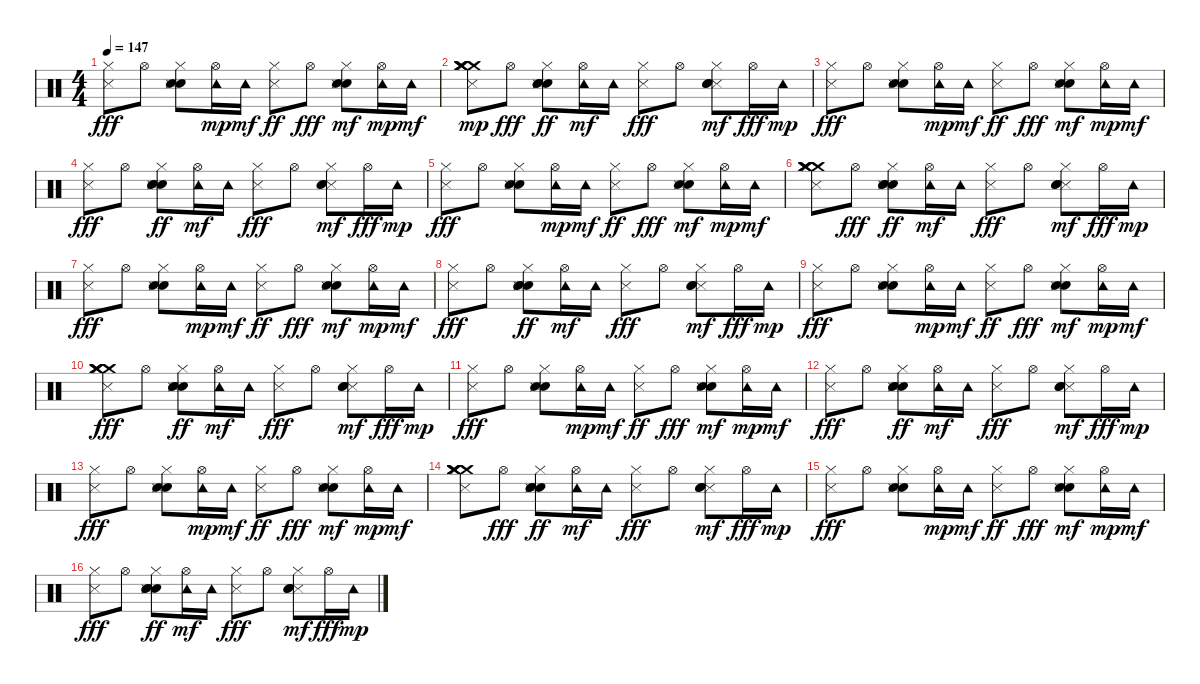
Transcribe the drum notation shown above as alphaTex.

\track "" {instrument percussion}
\staff {score}
\articulation defaults
\ts (4 4)
\tempo 147
\clef neutral
\ks c
("Metronome (hit)" "Hi-Hat (closed)").8{dy fff} "Hi-Hat (open)".8 ("Hand Clap (hit)" "Metronome (hit)" "Hi-Hat (closed)" "Snare (hit) 2").8 ("Hi-Hat (open)" "Tambourine (hit)").16{dy mp} "Tambourine (hit)".16{dy mf} ("Metronome (hit)" "Hi-Hat (closed)").8{dy ff} "Hi-Hat (open)".8{dy fff} ("Hand Clap (hit)" "Metronome (hit)" "Hi-Hat (closed)" "Snare (hit) 2").8{dy mf} ("Hi-Hat (open)" "Tambourine (hit)").16{dy mp} "Tambourine (hit)".16{dy mf} |
("Crash medium (hit)" "Crash medium (hit)" "Crash medium (hit)" "Hi-Hat (closed)" "Metronome (hit)" "Crash medium (hit)").8{dy mp} "Hi-Hat (open)".8{dy fff} ("Hand Clap (hit)" "Metronome (hit)" "Hi-Hat (closed)" "Snare (hit) 2" "Snare (hit) 2").8{dy ff} ("Hi-Hat (open)" "Tambourine (hit)").16{dy mf} "Tambourine (hit)".16 ("Hi-Hat (closed)" "Metronome (hit)").8{dy fff} "Hi-Hat (open)".8 ("Metronome (hit)" "Hand Clap (hit)" "Hi-Hat (closed)" "Snare (hit) 2").8{dy mf} "Hi-Hat (open)".16{dy fff} "Tambourine (hit)".16{dy mp} |
("Metronome (hit)" "Hi-Hat (closed)").8{dy fff} "Hi-Hat (open)".8 ("Hand Clap (hit)" "Metronome (hit)" "Hi-Hat (closed)" "Snare (hit) 2").8 ("Hi-Hat (open)" "Tambourine (hit)").16{dy mp} "Tambourine (hit)".16{dy mf} ("Metronome (hit)" "Hi-Hat (closed)").8{dy ff} "Hi-Hat (open)".8{dy fff} ("Hand Clap (hit)" "Metronome (hit)" "Hi-Hat (closed)" "Snare (hit) 2").8{dy mf} ("Hi-Hat (open)" "Tambourine (hit)").16{dy mp} "Tambourine (hit)".16{dy mf} |
("Hi-Hat (closed)" "Metronome (hit)").8{dy fff} "Hi-Hat (open)".8 ("Hand Clap (hit)" "Metronome (hit)" "Hi-Hat (closed)" "Snare (hit) 2" "Snare (hit) 2").8{dy ff} ("Hi-Hat (open)" "Tambourine (hit)").16{dy mf} "Tambourine (hit)".16 ("Hi-Hat (closed)" "Metronome (hit)").8{dy fff} "Hi-Hat (open)".8 ("Metronome (hit)" "Hand Clap (hit)" "Hi-Hat (closed)" "Snare (hit) 2").8{dy mf} "Hi-Hat (open)".16{dy fff} "Tambourine (hit)".16{dy mp} |
("Metronome (hit)" "Hi-Hat (closed)").8{dy fff} "Hi-Hat (open)".8 ("Hand Clap (hit)" "Metronome (hit)" "Hi-Hat (closed)" "Snare (hit) 2").8 ("Hi-Hat (open)" "Tambourine (hit)").16{dy mp} "Tambourine (hit)".16{dy mf} ("Metronome (hit)" "Hi-Hat (closed)").8{dy ff} "Hi-Hat (open)".8{dy fff} ("Hand Clap (hit)" "Metronome (hit)" "Hi-Hat (closed)" "Snare (hit) 2").8{dy mf} ("Hi-Hat (open)" "Tambourine (hit)").16{dy mp} "Tambourine (hit)".16{dy mf} |
("Crash medium (hit)" "Crash medium (hit)" "Hi-Hat (closed)" "Metronome (hit)" "Crash medium (hit)" "Crash medium (hit)").8 "Hi-Hat (open)".8{dy fff} ("Hand Clap (hit)" "Metronome (hit)" "Hi-Hat (closed)" "Snare (hit) 2" "Snare (hit) 2").8{dy ff} ("Hi-Hat (open)" "Tambourine (hit)").16{dy mf} "Tambourine (hit)".16 ("Hi-Hat (closed)" "Metronome (hit)").8{dy fff} "Hi-Hat (open)".8 ("Metronome (hit)" "Hand Clap (hit)" "Hi-Hat (closed)" "Snare (hit) 2").8{dy mf} "Hi-Hat (open)".16{dy fff} "Tambourine (hit)".16{dy mp} |
("Metronome (hit)" "Hi-Hat (closed)").8{dy fff} "Hi-Hat (open)".8 ("Hand Clap (hit)" "Metronome (hit)" "Hi-Hat (closed)" "Snare (hit) 2").8 ("Hi-Hat (open)" "Tambourine (hit)").16{dy mp} "Tambourine (hit)".16{dy mf} ("Metronome (hit)" "Hi-Hat (closed)").8{dy ff} "Hi-Hat (open)".8{dy fff} ("Hand Clap (hit)" "Metronome (hit)" "Hi-Hat (closed)" "Snare (hit) 2").8{dy mf} ("Hi-Hat (open)" "Tambourine (hit)").16{dy mp} "Tambourine (hit)".16{dy mf} |
("Hi-Hat (closed)" "Metronome (hit)").8{dy fff} "Hi-Hat (open)".8 ("Hand Clap (hit)" "Metronome (hit)" "Hi-Hat (closed)" "Snare (hit) 2" "Snare (hit) 2").8{dy ff} ("Hi-Hat (open)" "Tambourine (hit)").16{dy mf} "Tambourine (hit)".16 ("Hi-Hat (closed)" "Metronome (hit)").8{dy fff} "Hi-Hat (open)".8 ("Metronome (hit)" "Hand Clap (hit)" "Hi-Hat (closed)" "Snare (hit) 2").8{dy mf} "Hi-Hat (open)".16{dy fff} "Tambourine (hit)".16{dy mp} |
("Metronome (hit)" "Hi-Hat (closed)").8{dy fff} "Hi-Hat (open)".8 ("Hand Clap (hit)" "Metronome (hit)" "Hi-Hat (closed)" "Snare (hit) 2").8 ("Hi-Hat (open)" "Tambourine (hit)").16{dy mp} "Tambourine (hit)".16{dy mf} ("Metronome (hit)" "Hi-Hat (closed)").8{dy ff} "Hi-Hat (open)".8{dy fff} ("Hand Clap (hit)" "Metronome (hit)" "Hi-Hat (closed)" "Snare (hit) 2").8{dy mf} ("Hi-Hat (open)" "Tambourine (hit)").16{dy mp} "Tambourine (hit)".16{dy mf} |
("Crash medium (hit)" "Crash medium (hit)" "Crash medium (hit)" "Crash medium (hit)" "Hi-Hat (closed)" "Metronome (hit)").8{dy fff} "Hi-Hat (open)".8 ("Hand Clap (hit)" "Metronome (hit)" "Hi-Hat (closed)" "Snare (hit) 2" "Snare (hit) 2").8{dy ff} ("Hi-Hat (open)" "Tambourine (hit)").16{dy mf} "Tambourine (hit)".16 ("Hi-Hat (closed)" "Metronome (hit)").8{dy fff} "Hi-Hat (open)".8 ("Metronome (hit)" "Hand Clap (hit)" "Hi-Hat (closed)" "Snare (hit) 2").8{dy mf} "Hi-Hat (open)".16{dy fff} "Tambourine (hit)".16{dy mp} |
("Metronome (hit)" "Hi-Hat (closed)").8{dy fff} "Hi-Hat (open)".8 ("Hand Clap (hit)" "Metronome (hit)" "Hi-Hat (closed)" "Snare (hit) 2").8 ("Hi-Hat (open)" "Tambourine (hit)").16{dy mp} "Tambourine (hit)".16{dy mf} ("Metronome (hit)" "Hi-Hat (closed)").8{dy ff} "Hi-Hat (open)".8{dy fff} ("Hand Clap (hit)" "Metronome (hit)" "Hi-Hat (closed)" "Snare (hit) 2").8{dy mf} ("Hi-Hat (open)" "Tambourine (hit)").16{dy mp} "Tambourine (hit)".16{dy mf} |
("Hi-Hat (closed)" "Metronome (hit)").8{dy fff} "Hi-Hat (open)".8 ("Hand Clap (hit)" "Metronome (hit)" "Hi-Hat (closed)" "Snare (hit) 2" "Snare (hit) 2").8{dy ff} ("Hi-Hat (open)" "Tambourine (hit)").16{dy mf} "Tambourine (hit)".16 ("Hi-Hat (closed)" "Metronome (hit)").8{dy fff} "Hi-Hat (open)".8 ("Metronome (hit)" "Hand Clap (hit)" "Hi-Hat (closed)" "Snare (hit) 2").8{dy mf} "Hi-Hat (open)".16{dy fff} "Tambourine (hit)".16{dy mp} |
("Metronome (hit)" "Hi-Hat (closed)").8{dy fff} "Hi-Hat (open)".8 ("Hand Clap (hit)" "Metronome (hit)" "Hi-Hat (closed)" "Snare (hit) 2").8 ("Hi-Hat (open)" "Tambourine (hit)").16{dy mp} "Tambourine (hit)".16{dy mf} ("Metronome (hit)" "Hi-Hat (closed)").8{dy ff} "Hi-Hat (open)".8{dy fff} ("Hand Clap (hit)" "Metronome (hit)" "Hi-Hat (closed)" "Snare (hit) 2").8{dy mf} ("Hi-Hat (open)" "Tambourine (hit)").16{dy mp} "Tambourine (hit)".16{dy mf} |
("Crash medium (hit)" "Crash medium (hit)" "Hi-Hat (closed)" "Metronome (hit)" "Crash medium (hit)" "Crash medium (hit)").8 "Hi-Hat (open)".8{dy fff} ("Hand Clap (hit)" "Metronome (hit)" "Hi-Hat (closed)" "Snare (hit) 2" "Snare (hit) 2").8{dy ff} ("Hi-Hat (open)" "Tambourine (hit)").16{dy mf} "Tambourine (hit)".16 ("Hi-Hat (closed)" "Metronome (hit)").8{dy fff} "Hi-Hat (open)".8 ("Metronome (hit)" "Hand Clap (hit)" "Hi-Hat (closed)" "Snare (hit) 2").8{dy mf} "Hi-Hat (open)".16{dy fff} "Tambourine (hit)".16{dy mp} |
("Metronome (hit)" "Hi-Hat (closed)").8{dy fff} "Hi-Hat (open)".8 ("Hand Clap (hit)" "Metronome (hit)" "Hi-Hat (closed)" "Snare (hit) 2").8 ("Hi-Hat (open)" "Tambourine (hit)").16{dy mp} "Tambourine (hit)".16{dy mf} ("Metronome (hit)" "Hi-Hat (closed)").8{dy ff} "Hi-Hat (open)".8{dy fff} ("Hand Clap (hit)" "Metronome (hit)" "Hi-Hat (closed)" "Snare (hit) 2").8{dy mf} ("Hi-Hat (open)" "Tambourine (hit)").16{dy mp} "Tambourine (hit)".16{dy mf} |
("Hi-Hat (closed)" "Metronome (hit)").8{dy fff} "Hi-Hat (open)".8 ("Hand Clap (hit)" "Metronome (hit)" "Hi-Hat (closed)" "Snare (hit) 2" "Snare (hit) 2").8{dy ff} ("Hi-Hat (open)" "Tambourine (hit)").16{dy mf} "Tambourine (hit)".16 ("Hi-Hat (closed)" "Metronome (hit)").8{dy fff} "Hi-Hat (open)".8 ("Metronome (hit)" "Hand Clap (hit)" "Hi-Hat (closed)" "Snare (hit) 2").8{dy mf} "Hi-Hat (open)".16{dy fff} "Tambourine (hit)".16{dy mp}
